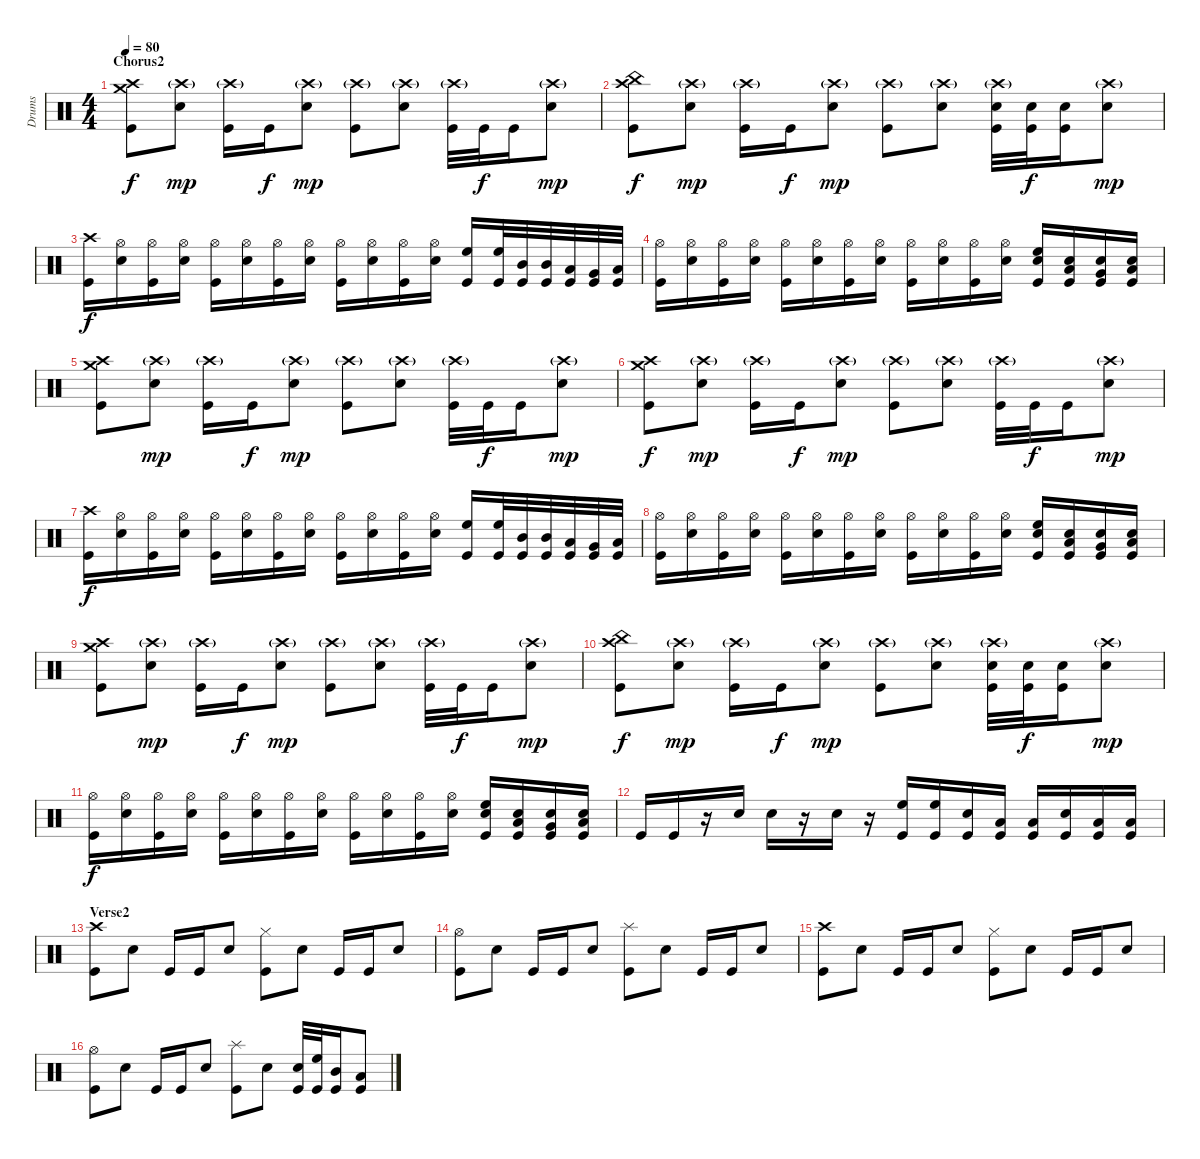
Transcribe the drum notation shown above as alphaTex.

\track ("Drums" "Drums") {instrument percussion}
\staff {score}
\articulation defaults
\ts (4 4)
\section ("" "Chorus2")
\tempo 80
\clef neutral
\ks c
("Crash high (hit)" "Crash medium (hit)" "Kick (hit)").8{dy f} ("Crash high (hit)"{g} "Electric Snare (hit)").8{dy mp} ("Crash high (hit)"{g} "Kick (hit)").16 "Kick (hit)".16{dy f} ("Crash high (hit)"{g} "Electric Snare (hit)").8{dy mp} ("Crash high (hit)"{g} "Kick (hit)").8 ("Crash high (hit)"{g} "Electric Snare (hit)").8 ("Crash high (hit)"{g} "Kick (hit)").32 "Kick (hit)".32{dy f} "Kick (hit)".16 ("Crash high (hit)"{g} "Electric Snare (hit)").8{dy mp} |
("Crash high (hit)" "China (hit)" "Kick (hit)").8{dy f} ("Crash high (hit)"{g} "Electric Snare (hit)").8{dy mp} ("Crash high (hit)"{g} "Kick (hit)").16 "Kick (hit)".16{dy f} ("Crash high (hit)"{g} "Electric Snare (hit)").8{dy mp} ("Crash high (hit)"{g} "Kick (hit)").8 ("Crash high (hit)"{g} "Electric Snare (hit)").8 ("Crash high (hit)"{g} "Electric Snare (hit)" "Kick (hit)").32 ("Electric Snare (hit)" "Kick (hit)").32{dy f} ("Electric Snare (hit)" "Kick (hit)").16 ("Crash high (hit)"{g} "Electric Snare (hit)").8{dy mp} |
("Crash high (hit)" "Kick (hit)").16{dy f} ("Hi-Hat (open)" "Electric Snare (hit)").16 ("Hi-Hat (open)" "Kick (hit)").16 ("Hi-Hat (open)" "Electric Snare (hit)").16 ("Hi-Hat (open)" "Kick (hit)").16 ("Hi-Hat (open)" "Electric Snare (hit)").16 ("Hi-Hat (open)" "Kick (hit)").16 ("Hi-Hat (open)" "Electric Snare (hit)").16 ("Hi-Hat (open)" "Kick (hit)").16 ("Hi-Hat (open)" "Electric Snare (hit)").16 ("Hi-Hat (open)" "Kick (hit)").16 ("Hi-Hat (open)" "Electric Snare (hit)").16 ("High Floor Tom (hit)" "Kick (hit)").16 ("High Floor Tom (hit)" "Kick (hit)").32 ("Mid Tom (hit)" "Kick (hit)").32 ("Mid Tom (hit)" "Kick (hit)").32 ("Low Tom (hit)" "Kick (hit)").32 ("Very Low Tom (hit)" "Kick (hit)").32 ("Low Floor Tom (hit)" "Kick (hit)").32 |
("Hi-Hat (open)" "Kick (hit)").16 ("Hi-Hat (open)" "Electric Snare (hit)").16 ("Hi-Hat (open)" "Kick (hit)").16 ("Hi-Hat (open)" "Electric Snare (hit)").16 ("Hi-Hat (open)" "Kick (hit)").16 ("Hi-Hat (open)" "Electric Snare (hit)").16 ("Hi-Hat (open)" "Kick (hit)").16 ("Hi-Hat (open)" "Electric Snare (hit)").16 ("Hi-Hat (open)" "Kick (hit)").16 ("Hi-Hat (open)" "Electric Snare (hit)").16 ("Hi-Hat (open)" "Kick (hit)").16 ("Hi-Hat (open)" "Electric Snare (hit)").16 ("High Floor Tom (hit)" "Electric Snare (hit)" "Kick (hit)").16 ("Low Tom (hit)" "Electric Snare (hit)" "Kick (hit)").16 ("Very Low Tom (hit)" "Electric Snare (hit)" "Kick (hit)").16 ("Low Floor Tom (hit)" "Electric Snare (hit)" "Kick (hit)").16 |
("Crash high (hit)" "Crash medium (hit)" "Kick (hit)").8 ("Crash high (hit)"{g} "Electric Snare (hit)").8{dy mp} ("Crash high (hit)"{g} "Kick (hit)").16 "Kick (hit)".16{dy f} ("Crash high (hit)"{g} "Electric Snare (hit)").8{dy mp} ("Crash high (hit)"{g} "Kick (hit)").8 ("Crash high (hit)"{g} "Electric Snare (hit)").8 ("Crash high (hit)"{g} "Kick (hit)").32 "Kick (hit)".32{dy f} "Kick (hit)".16 ("Crash high (hit)"{g} "Electric Snare (hit)").8{dy mp} |
("Crash high (hit)" "Crash medium (hit)" "Kick (hit)").8{dy f} ("Crash high (hit)"{g} "Electric Snare (hit)").8{dy mp} ("Crash high (hit)"{g} "Kick (hit)").16 "Kick (hit)".16{dy f} ("Crash high (hit)"{g} "Electric Snare (hit)").8{dy mp} ("Crash high (hit)"{g} "Kick (hit)").8 ("Crash high (hit)"{g} "Electric Snare (hit)").8 ("Crash high (hit)"{g} "Kick (hit)").32 "Kick (hit)".32{dy f} "Kick (hit)".16 ("Crash high (hit)"{g} "Electric Snare (hit)").8{dy mp} |
("Crash high (hit)" "Kick (hit)").16{dy f} ("Hi-Hat (open)" "Electric Snare (hit)").16 ("Hi-Hat (open)" "Kick (hit)").16 ("Hi-Hat (open)" "Electric Snare (hit)").16 ("Hi-Hat (open)" "Kick (hit)").16 ("Hi-Hat (open)" "Electric Snare (hit)").16 ("Hi-Hat (open)" "Kick (hit)").16 ("Hi-Hat (open)" "Electric Snare (hit)").16 ("Hi-Hat (open)" "Kick (hit)").16 ("Hi-Hat (open)" "Electric Snare (hit)").16 ("Hi-Hat (open)" "Kick (hit)").16 ("Hi-Hat (open)" "Electric Snare (hit)").16 ("High Floor Tom (hit)" "Kick (hit)").16 ("High Floor Tom (hit)" "Kick (hit)").32 ("Mid Tom (hit)" "Kick (hit)").32 ("Mid Tom (hit)" "Kick (hit)").32 ("Low Tom (hit)" "Kick (hit)").32 ("Very Low Tom (hit)" "Kick (hit)").32 ("Low Floor Tom (hit)" "Kick (hit)").32 |
("Hi-Hat (open)" "Kick (hit)").16 ("Hi-Hat (open)" "Electric Snare (hit)").16 ("Hi-Hat (open)" "Kick (hit)").16 ("Hi-Hat (open)" "Electric Snare (hit)").16 ("Hi-Hat (open)" "Kick (hit)").16 ("Hi-Hat (open)" "Electric Snare (hit)").16 ("Hi-Hat (open)" "Kick (hit)").16 ("Hi-Hat (open)" "Electric Snare (hit)").16 ("Hi-Hat (open)" "Kick (hit)").16 ("Hi-Hat (open)" "Electric Snare (hit)").16 ("Hi-Hat (open)" "Kick (hit)").16 ("Hi-Hat (open)" "Electric Snare (hit)").16 ("High Floor Tom (hit)" "Electric Snare (hit)" "Kick (hit)").16 ("Low Tom (hit)" "Electric Snare (hit)" "Kick (hit)").16 ("Very Low Tom (hit)" "Electric Snare (hit)" "Kick (hit)").16 ("Low Floor Tom (hit)" "Electric Snare (hit)" "Kick (hit)").16 |
("Crash high (hit)" "Crash medium (hit)" "Kick (hit)").8 ("Crash high (hit)"{g} "Electric Snare (hit)").8{dy mp} ("Crash high (hit)"{g} "Kick (hit)").16 "Kick (hit)".16{dy f} ("Crash high (hit)"{g} "Electric Snare (hit)").8{dy mp} ("Crash high (hit)"{g} "Kick (hit)").8 ("Crash high (hit)"{g} "Electric Snare (hit)").8 ("Crash high (hit)"{g} "Kick (hit)").32 "Kick (hit)".32{dy f} "Kick (hit)".16 ("Crash high (hit)"{g} "Electric Snare (hit)").8{dy mp} |
("Crash high (hit)" "China (hit)" "Kick (hit)").8{dy f} ("Crash high (hit)"{g} "Electric Snare (hit)").8{dy mp} ("Crash high (hit)"{g} "Kick (hit)").16 "Kick (hit)".16{dy f} ("Crash high (hit)"{g} "Electric Snare (hit)").8{dy mp} ("Crash high (hit)"{g} "Kick (hit)").8 ("Crash high (hit)"{g} "Electric Snare (hit)").8 ("Crash high (hit)"{g} "Electric Snare (hit)" "Kick (hit)").32 ("Electric Snare (hit)" "Kick (hit)").32{dy f} ("Electric Snare (hit)" "Kick (hit)").16 ("Crash high (hit)"{g} "Electric Snare (hit)").8{dy mp} |
("Hi-Hat (open)" "Kick (hit)").16{dy f} ("Hi-Hat (open)" "Electric Snare (hit)").16 ("Hi-Hat (open)" "Kick (hit)").16 ("Hi-Hat (open)" "Electric Snare (hit)").16 ("Hi-Hat (open)" "Kick (hit)").16 ("Hi-Hat (open)" "Electric Snare (hit)").16 ("Hi-Hat (open)" "Kick (hit)").16 ("Hi-Hat (open)" "Electric Snare (hit)").16 ("Hi-Hat (open)" "Kick (hit)").16 ("Hi-Hat (open)" "Electric Snare (hit)").16 ("Hi-Hat (open)" "Kick (hit)").16 ("Hi-Hat (open)" "Electric Snare (hit)").16 ("High Floor Tom (hit)" "Electric Snare (hit)" "Kick (hit)").16 ("Low Tom (hit)" "Electric Snare (hit)" "Kick (hit)").16 ("Very Low Tom (hit)" "Electric Snare (hit)" "Kick (hit)").16 ("Low Floor Tom (hit)" "Electric Snare (hit)" "Kick (hit)").16 |
"Kick (hit)".16 "Kick (hit)".16 r.16 "Electric Snare (hit)".16 "Electric Snare (hit)".16 r.16 "Electric Snare (hit)".16 r.16 ("High Floor Tom (hit)" "Kick (hit)").16 ("High Floor Tom (hit)" "Kick (hit)").16 ("Electric Snare (hit)" "Kick (hit)").16 ("Low Tom (hit)" "Kick (hit)").16 ("Low Tom (hit)" "Kick (hit)").16 ("Electric Snare (hit)" "Kick (hit)").16 ("Low Floor Tom (hit)" "Kick (hit)").16 ("Low Floor Tom (hit)" "Kick (hit)").16 |
\section ("" "Verse2")
("Crash high (hit)" "Kick (hit)").8 "Electric Snare (hit)".8 "Kick (hit)".16 "Kick (hit)".16 "Electric Snare (hit)".8 ("Hi-Hat (closed)" "Kick (hit)").8 "Electric Snare (hit)".8 "Kick (hit)".16 "Kick (hit)".16 "Electric Snare (hit)".8 |
("Hi-Hat (open)" "Kick (hit)").8 "Electric Snare (hit)".8 "Kick (hit)".16 "Kick (hit)".16 "Electric Snare (hit)".8 ("Splash (hit)" "Kick (hit)").8 "Electric Snare (hit)".8 "Kick (hit)".16 "Kick (hit)".16 "Electric Snare (hit)".8 |
("Crash high (hit)" "Kick (hit)").8 "Electric Snare (hit)".8 "Kick (hit)".16 "Kick (hit)".16 "Electric Snare (hit)".8 ("Hi-Hat (closed)" "Kick (hit)").8 "Electric Snare (hit)".8 "Kick (hit)".16 "Kick (hit)".16 "Electric Snare (hit)".8 |
("Hi-Hat (open)" "Kick (hit)").8 "Electric Snare (hit)".8 "Kick (hit)".16 "Kick (hit)".16 "Electric Snare (hit)".8 ("Splash (hit)" "Kick (hit)").8 "Electric Snare (hit)".8 ("Electric Snare (hit)" "Kick (hit)").32 ("High Floor Tom (hit)" "Kick (hit)").32 ("Mid Tom (hit)" "Kick (hit)").16 ("Low Tom (hit)" "Kick (hit)").8
